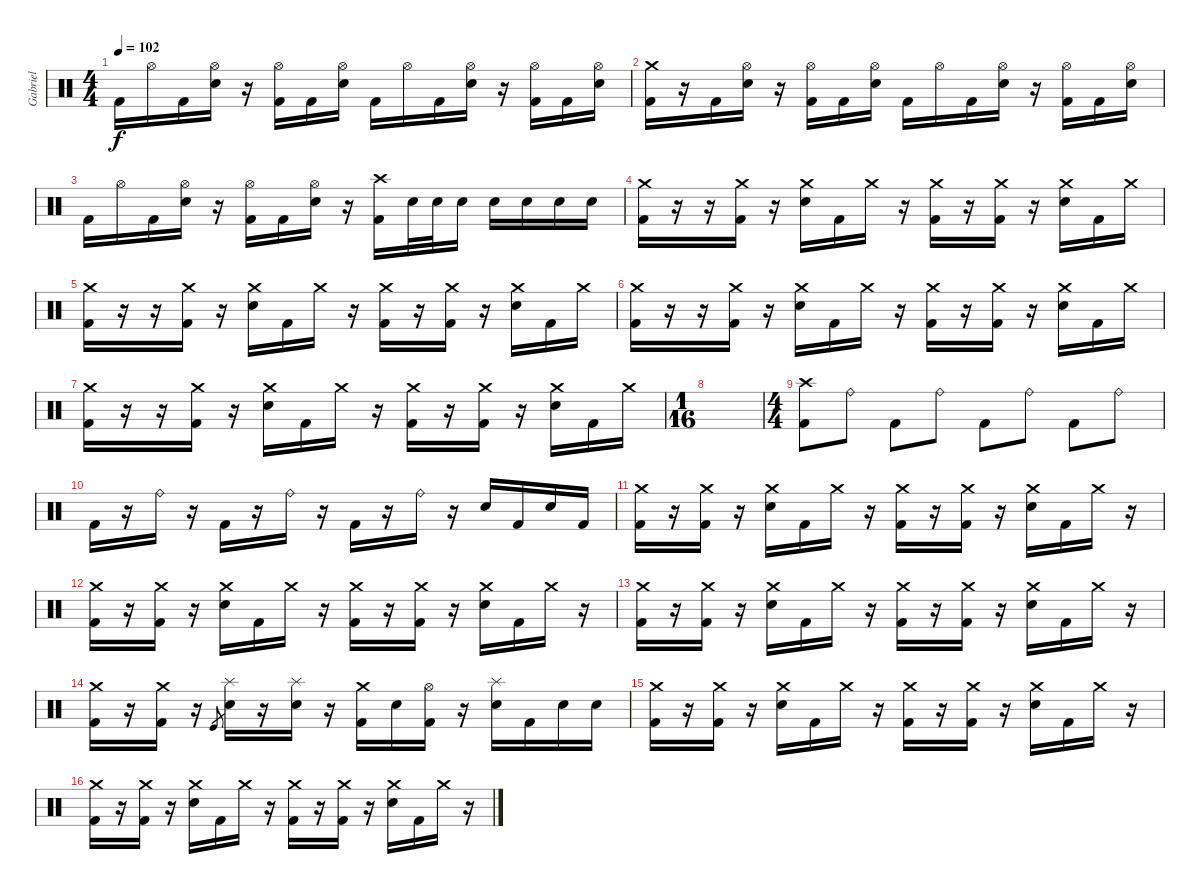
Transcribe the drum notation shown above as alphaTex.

\track ("Gabriel" "Gabriel") {instrument percussion}
\staff {score}
\articulation defaults
\ts (4 4)
\tempo 102
\clef neutral
\ks c "Kick (hit) 2".16{dy f} "Hi-Hat (open)".16 "Kick (hit) 2".16
("Hi-Hat (open)" "Electric Snare (hit)").16 r.16 ("Hi-Hat (open)" "Kick (hit) 2").16 "Kick (hit) 2".16 ("Hi-Hat (open)" "Electric Snare (hit)").16 "Kick (hit) 2".16 "Hi-Hat (open)".16 "Kick (hit) 2".16 ("Hi-Hat (open)" "Electric Snare (hit)").16 r.16 ("Hi-Hat (open)" "Kick (hit) 2").16 "Kick (hit) 2".16 ("Hi-Hat (open)" "Electric Snare (hit)").16 |
("Crash medium (hit)" "Kick (hit) 2").16 r.16 "Kick (hit) 2".16 ("Hi-Hat (open)" "Electric Snare (hit)").16 r.16 ("Hi-Hat (open)" "Kick (hit) 2").16 "Kick (hit) 2".16 ("Hi-Hat (open)" "Electric Snare (hit)").16 "Kick (hit) 2".16 "Hi-Hat (open)".16 "Kick (hit) 2".16 ("Hi-Hat (open)" "Electric Snare (hit)").16 r.16 ("Hi-Hat (open)" "Kick (hit) 2").16 "Kick (hit) 2".16 ("Hi-Hat (open)" "Electric Snare (hit)").16 |
"Kick (hit) 2".16 "Hi-Hat (open)".16 "Kick (hit) 2".16 ("Hi-Hat (open)" "Electric Snare (hit)").16 r.16 ("Hi-Hat (open)" "Kick (hit) 2").16 "Kick (hit) 2".16 ("Hi-Hat (open)" "Electric Snare (hit)").16 r.16 ("Crash high (hit)" "Kick (hit) 2").16 "Electric Snare (hit)".32 "Electric Snare (hit)".32 "Electric Snare (hit)".16 "Electric Snare (hit)".16 "Electric Snare (hit)".16 "Electric Snare (hit)".16 "Electric Snare (hit)".16 |
("Crash medium (hit)" "Kick (hit) 2").16 r.16 r.16 ("Crash medium (hit)" "Kick (hit) 2").16 r.16 ("Crash medium (hit)" "Electric Snare (hit)").16 "Kick (hit) 2".16 "Crash medium (hit)".16 r.16 ("Crash medium (hit)" "Kick (hit) 2").16 r.16 ("Crash medium (hit)" "Kick (hit) 2").16 r.16 ("Crash medium (hit)" "Electric Snare (hit)").16 "Kick (hit) 2".16 "Crash medium (hit)".16 |
("Crash medium (hit)" "Kick (hit) 2").16 r.16 r.16 ("Crash medium (hit)" "Kick (hit) 2").16 r.16 ("Crash medium (hit)" "Electric Snare (hit)").16 "Kick (hit) 2".16 "Crash medium (hit)".16 r.16 ("Crash medium (hit)" "Kick (hit) 2").16 r.16 ("Crash medium (hit)" "Kick (hit) 2").16 r.16 ("Crash medium (hit)" "Electric Snare (hit)").16 "Kick (hit) 2".16 "Crash medium (hit)".16 |
("Crash medium (hit)" "Kick (hit) 2").16 r.16 r.16 ("Crash medium (hit)" "Kick (hit) 2").16 r.16 ("Crash medium (hit)" "Electric Snare (hit)").16 "Kick (hit) 2".16 "Crash medium (hit)".16 r.16 ("Crash medium (hit)" "Kick (hit) 2").16 r.16 ("Crash medium (hit)" "Kick (hit) 2").16 r.16 ("Crash medium (hit)" "Electric Snare (hit)").16 "Kick (hit) 2".16 "Crash medium (hit)".16 |
("Crash medium (hit)" "Kick (hit) 2").16 r.16 r.16 ("Crash medium (hit)" "Kick (hit) 2").16 r.16 ("Crash medium (hit)" "Electric Snare (hit)").16 "Kick (hit) 2".16 "Crash medium (hit)".16 r.16 ("Crash medium (hit)" "Kick (hit) 2").16 r.16 ("Crash medium (hit)" "Kick (hit) 2").16 r.16 ("Crash medium (hit)" "Electric Snare (hit)").16 "Kick (hit) 2".16 "Crash medium (hit)".16 |
\ts (1 16)
|
\ts (4 4)
("Crash high (hit)" "Kick (hit) 2").8 "Ride (bell)".8 "Kick (hit) 2".8 "Ride (bell)".8 "Kick (hit) 2".8 "Ride (bell)".8 "Kick (hit) 2".8 "Ride (bell)".8 |
"Kick (hit) 2".16 r.16 "Ride (bell)".16 r.16 "Kick (hit) 2".16 r.16 "Ride (bell)".16 r.16 "Kick (hit) 2".16 r.16 "Ride (bell)".16 r.16 "Electric Snare (hit)".16 "Kick (hit) 2".16 "Electric Snare (hit)".16 "Kick (hit) 2".16 |
("Crash medium (hit)" "Kick (hit) 2").16 r.16 ("Crash medium (hit)" "Kick (hit) 2").16 r.16 ("Crash medium (hit)" "Electric Snare (hit)").16 "Kick (hit) 2".16 "Crash medium (hit)".16 r.16 ("Crash medium (hit)" "Kick (hit) 2").16 r.16 ("Crash medium (hit)" "Kick (hit) 2").16 r.16 ("Crash medium (hit)" "Electric Snare (hit)").16 "Kick (hit) 2".16 "Crash medium (hit)".16 r.16 |
("Crash medium (hit)" "Kick (hit) 2").16 r.16 ("Crash medium (hit)" "Kick (hit) 2").16 r.16 ("Crash medium (hit)" "Electric Snare (hit)").16 "Kick (hit) 2".16 "Crash medium (hit)".16 r.16 ("Crash medium (hit)" "Kick (hit) 2").16 r.16 ("Crash medium (hit)" "Kick (hit) 2").16 r.16 ("Crash medium (hit)" "Electric Snare (hit)").16 "Kick (hit) 2".16 "Crash medium (hit)".16 r.16 |
("Crash medium (hit)" "Kick (hit) 2").16 r.16 ("Crash medium (hit)" "Kick (hit) 2").16 r.16 ("Crash medium (hit)" "Electric Snare (hit)").16 "Kick (hit) 2".16 "Crash medium (hit)".16 r.16 ("Crash medium (hit)" "Kick (hit) 2").16 r.16 ("Crash medium (hit)" "Kick (hit) 2").16 r.16 ("Crash medium (hit)" "Electric Snare (hit)").16 "Kick (hit) 2".16 "Crash medium (hit)".16 r.16 |
("Crash medium (hit)" "Kick (hit) 2").16 r.16 ("Crash medium (hit)" "Kick (hit) 2").16 r.16 "Kick (hit)".8{gr} ("Splash (hit)" "Electric Snare (hit)").16 r.16 ("Splash (hit)" "Electric Snare (hit)").16 r.16 ("Crash medium (hit)" "Kick (hit) 2").16 "Electric Snare (hit)".16 ("Hi-Hat (open)" "Kick (hit) 2").16 r.16 ("Splash (hit)" "Electric Snare (hit)").16 "Kick (hit) 2".16 "Electric Snare (hit)".16 "Electric Snare (hit)".16 |
("Crash medium (hit)" "Kick (hit) 2").16 r.16 ("Crash medium (hit)" "Kick (hit) 2").16 r.16 ("Crash medium (hit)" "Electric Snare (hit)").16 "Kick (hit) 2".16 "Crash medium (hit)".16 r.16 ("Crash medium (hit)" "Kick (hit) 2").16 r.16 ("Crash medium (hit)" "Kick (hit) 2").16 r.16 ("Crash medium (hit)" "Electric Snare (hit)").16 "Kick (hit) 2".16 "Crash medium (hit)".16 r.16 |
("Crash medium (hit)" "Kick (hit) 2").16 r.16 ("Crash medium (hit)" "Kick (hit) 2").16 r.16 ("Crash medium (hit)" "Electric Snare (hit)").16 "Kick (hit) 2".16 "Crash medium (hit)".16 r.16 ("Crash medium (hit)" "Kick (hit) 2").16 r.16 ("Crash medium (hit)" "Kick (hit) 2").16 r.16 ("Crash medium (hit)" "Electric Snare (hit)").16 "Kick (hit) 2".16 "Crash medium (hit)".16 r.16
